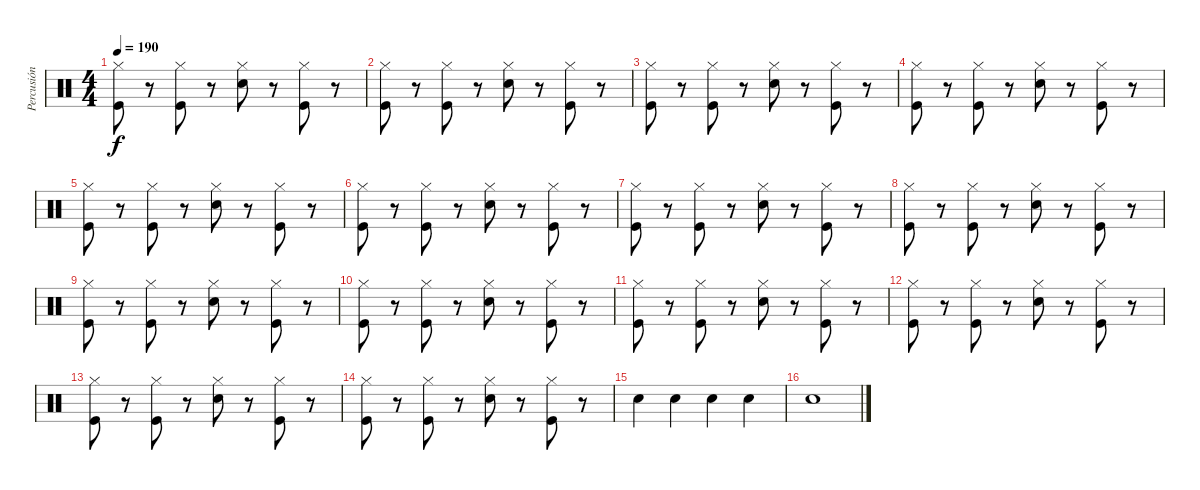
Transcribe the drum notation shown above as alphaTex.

\track ("Percusión" "Percusión") {instrument percussion}
\staff {score}
\articulation defaults
\ts (4 4)
\tempo 190
\clef neutral
\ks c
("Hi-Hat (closed)" "Kick (hit)").8{dy f} r.8 ("Hi-Hat (closed)" "Kick (hit)").8 r.8 ("Hi-Hat (closed)" "Snare (hit) 2").8 r.8 ("Hi-Hat (closed)" "Kick (hit)").8 r.8 |
("Hi-Hat (closed)" "Kick (hit)").8 r.8 ("Hi-Hat (closed)" "Kick (hit)").8 r.8 ("Hi-Hat (closed)" "Snare (hit) 2").8 r.8 ("Hi-Hat (closed)" "Kick (hit)").8 r.8 |
("Hi-Hat (closed)" "Kick (hit)").8 r.8 ("Hi-Hat (closed)" "Kick (hit)").8 r.8 ("Hi-Hat (closed)" "Snare (hit) 2").8 r.8 ("Hi-Hat (closed)" "Kick (hit)").8 r.8 |
("Hi-Hat (closed)" "Kick (hit)").8 r.8 ("Hi-Hat (closed)" "Kick (hit)").8 r.8 ("Hi-Hat (closed)" "Snare (hit) 2").8 r.8 ("Hi-Hat (closed)" "Kick (hit)").8 r.8 |
("Hi-Hat (closed)" "Kick (hit)").8 r.8 ("Hi-Hat (closed)" "Kick (hit)").8 r.8 ("Hi-Hat (closed)" "Snare (hit) 2").8 r.8 ("Hi-Hat (closed)" "Kick (hit)").8 r.8 |
("Hi-Hat (closed)" "Kick (hit)").8 r.8 ("Hi-Hat (closed)" "Kick (hit)").8 r.8 ("Hi-Hat (closed)" "Snare (hit) 2").8 r.8 ("Hi-Hat (closed)" "Kick (hit)").8 r.8 |
("Hi-Hat (closed)" "Kick (hit)").8 r.8 ("Hi-Hat (closed)" "Kick (hit)").8 r.8 ("Hi-Hat (closed)" "Snare (hit) 2").8 r.8 ("Hi-Hat (closed)" "Kick (hit)").8 r.8 |
("Hi-Hat (closed)" "Kick (hit)").8 r.8 ("Hi-Hat (closed)" "Kick (hit)").8 r.8 ("Hi-Hat (closed)" "Snare (hit) 2").8 r.8 ("Hi-Hat (closed)" "Kick (hit)").8 r.8 |
("Hi-Hat (closed)" "Kick (hit)").8 r.8 ("Hi-Hat (closed)" "Kick (hit)").8 r.8 ("Hi-Hat (closed)" "Snare (hit) 2").8 r.8 ("Hi-Hat (closed)" "Kick (hit)").8 r.8 |
("Hi-Hat (closed)" "Kick (hit)").8 r.8 ("Hi-Hat (closed)" "Kick (hit)").8 r.8 ("Hi-Hat (closed)" "Snare (hit) 2").8 r.8 ("Hi-Hat (closed)" "Kick (hit)").8 r.8 |
("Hi-Hat (closed)" "Kick (hit)").8 r.8 ("Hi-Hat (closed)" "Kick (hit)").8 r.8 ("Hi-Hat (closed)" "Snare (hit) 2").8 r.8 ("Hi-Hat (closed)" "Kick (hit)").8 r.8 |
("Hi-Hat (closed)" "Kick (hit)").8 r.8 ("Hi-Hat (closed)" "Kick (hit)").8 r.8 ("Hi-Hat (closed)" "Snare (hit) 2").8 r.8 ("Hi-Hat (closed)" "Kick (hit)").8 r.8 |
("Hi-Hat (closed)" "Kick (hit)").8 r.8 ("Hi-Hat (closed)" "Kick (hit)").8 r.8 ("Hi-Hat (closed)" "Snare (hit) 2").8 r.8 ("Hi-Hat (closed)" "Kick (hit)").8 r.8 |
("Hi-Hat (closed)" "Kick (hit)").8 r.8 ("Hi-Hat (closed)" "Kick (hit)").8 r.8 ("Hi-Hat (closed)" "Snare (hit) 2").8 r.8 ("Hi-Hat (closed)" "Kick (hit)").8 r.8 |
"Snare (hit) 2".4 "Snare (hit) 2".4 "Snare (hit) 2".4 "Snare (hit) 2".4 |
"Snare (hit) 2".1
